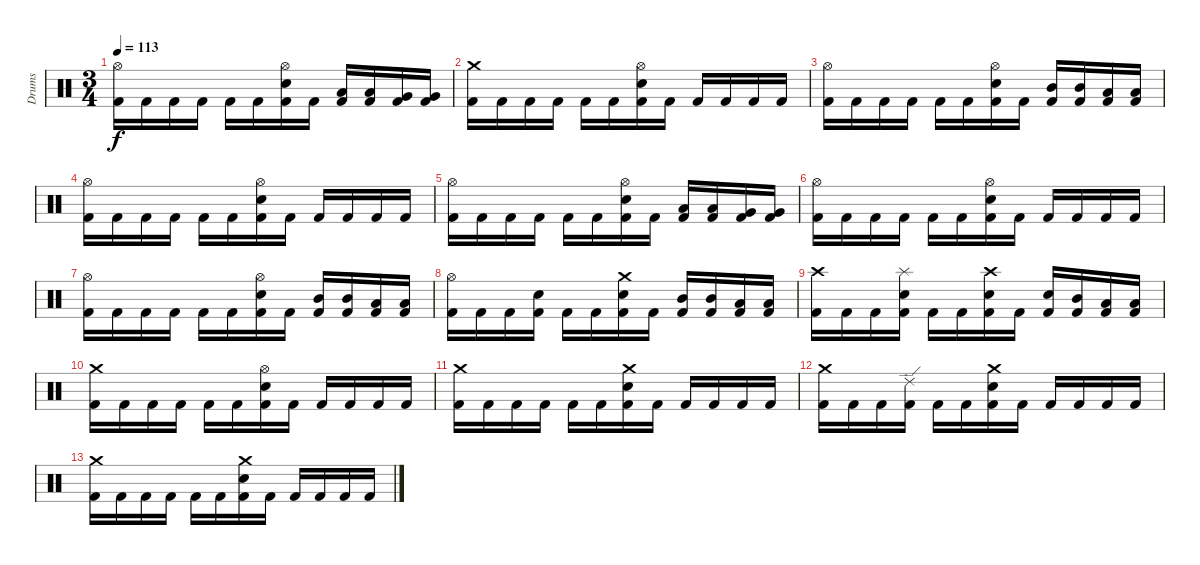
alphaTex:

\track ("Drums" "Drums") {instrument percussion}
\staff {score}
\articulation defaults
\ts (3 4)
\tempo 113
\clef neutral
\ks c
("Hi-Hat (open)" "Kick (hit) 2").16{dy f} "Kick (hit) 2".16 "Kick (hit) 2".16 "Kick (hit) 2".16 "Kick (hit) 2".16 "Kick (hit) 2".16 ("Hi-Hat (open)" "Electric Snare (hit)" "Kick (hit) 2").16 "Kick (hit) 2".16 ("Low Tom (hit)" "Kick (hit) 2").16 ("Low Tom (hit)" "Kick (hit) 2").16 ("Very Low Tom (hit)" "Kick (hit) 2").16 ("Very Low Tom (hit)" "Kick (hit) 2").16 |
("Crash medium (hit)" "Kick (hit) 2").16 "Kick (hit) 2".16 "Kick (hit) 2".16 "Kick (hit) 2".16 "Kick (hit) 2".16 "Kick (hit) 2".16 ("Hi-Hat (open)" "Electric Snare (hit)" "Kick (hit) 2").16 "Kick (hit) 2".16 "Kick (hit) 2".16 "Kick (hit) 2".16 "Kick (hit) 2".16 "Kick (hit) 2".16 |
("Hi-Hat (open)" "Kick (hit) 2").16 "Kick (hit) 2".16 "Kick (hit) 2".16 "Kick (hit) 2".16 "Kick (hit) 2".16 "Kick (hit) 2".16 ("Hi-Hat (open)" "Electric Snare (hit)" "Kick (hit) 2").16 "Kick (hit) 2".16 ("Mid Tom (hit)" "Kick (hit) 2").16 ("Mid Tom (hit)" "Kick (hit) 2").16 ("Low Tom (hit)" "Kick (hit) 2").16 ("Low Tom (hit)" "Kick (hit) 2").16 |
("Hi-Hat (open)" "Kick (hit) 2").16 "Kick (hit) 2".16 "Kick (hit) 2".16 "Kick (hit) 2".16 "Kick (hit) 2".16 "Kick (hit) 2".16 ("Hi-Hat (open)" "Electric Snare (hit)" "Kick (hit) 2").16 "Kick (hit) 2".16 "Kick (hit) 2".16 "Kick (hit) 2".16 "Kick (hit) 2".16 "Kick (hit) 2".16 |
("Hi-Hat (open)" "Kick (hit) 2").16 "Kick (hit) 2".16 "Kick (hit) 2".16 "Kick (hit) 2".16 "Kick (hit) 2".16 "Kick (hit) 2".16 ("Hi-Hat (open)" "Electric Snare (hit)" "Kick (hit) 2").16 "Kick (hit) 2".16 ("Low Tom (hit)" "Kick (hit) 2").16 ("Low Tom (hit)" "Kick (hit) 2").16 ("Very Low Tom (hit)" "Kick (hit) 2").16 ("Very Low Tom (hit)" "Kick (hit) 2").16 |
("Hi-Hat (open)" "Kick (hit) 2").16 "Kick (hit) 2".16 "Kick (hit) 2".16 "Kick (hit) 2".16 "Kick (hit) 2".16 "Kick (hit) 2".16 ("Hi-Hat (open)" "Electric Snare (hit)" "Kick (hit) 2").16 "Kick (hit) 2".16 "Kick (hit) 2".16 "Kick (hit) 2".16 "Kick (hit) 2".16 "Kick (hit) 2".16 |
("Hi-Hat (open)" "Kick (hit) 2").16 "Kick (hit) 2".16 "Kick (hit) 2".16 "Kick (hit) 2".16 "Kick (hit) 2".16 "Kick (hit) 2".16 ("Hi-Hat (open)" "Electric Snare (hit)" "Kick (hit) 2").16 "Kick (hit) 2".16 ("Mid Tom (hit)" "Kick (hit) 2").16 ("Mid Tom (hit)" "Kick (hit) 2").16 ("Low Tom (hit)" "Kick (hit) 2").16 ("Low Tom (hit)" "Kick (hit) 2").16 |
("Hi-Hat (open)" "Kick (hit) 2").16 "Kick (hit) 2".16 "Kick (hit) 2".16 ("Electric Snare (hit)" "Kick (hit) 2").16 "Kick (hit) 2".16 "Kick (hit) 2".16 ("Crash medium (hit)" "Electric Snare (hit)" "Kick (hit) 2").16 "Kick (hit) 2".16 ("Mid Tom (hit)" "Kick (hit) 2").16 ("Mid Tom (hit)" "Kick (hit) 2").16 ("Low Tom (hit)" "Kick (hit) 2").16 ("Low Tom (hit)" "Kick (hit) 2").16 |
("Crash high (hit)" "Kick (hit) 2").16 "Kick (hit) 2".16 "Kick (hit) 2".16 ("Splash (hit)" "Electric Snare (hit)" "Kick (hit) 2").16 "Kick (hit) 2".16 "Kick (hit) 2".16 ("Crash high (hit)" "Electric Snare (hit)" "Kick (hit) 2").16 "Kick (hit) 2".16 ("Electric Snare (hit)" "Kick (hit) 2").16 ("Mid Tom (hit)" "Kick (hit) 2").16 ("Low Tom (hit)" "Kick (hit) 2").16 ("Low Floor Tom (hit)" "Kick (hit) 2").16 |
("Crash medium (hit)" "Kick (hit) 2").16 "Kick (hit) 2".16 "Kick (hit) 2".16 "Kick (hit) 2".16 "Kick (hit) 2".16 "Kick (hit) 2".16 ("Hi-Hat (open)" "Electric Snare (hit)" "Kick (hit) 2").16 "Kick (hit) 2".16 "Kick (hit) 2".16 "Kick (hit) 2".16 "Kick (hit) 2".16 "Kick (hit) 2".16 |
("Crash medium (hit)" "Kick (hit) 2").16 "Kick (hit) 2".16 "Kick (hit) 2".16 "Kick (hit) 2".16 "Kick (hit) 2".16 "Kick (hit) 2".16 ("Crash medium (hit)" "Electric Snare (hit)" "Kick (hit) 2").16 "Kick (hit) 2".16 "Kick (hit) 2".16 "Kick (hit) 2".16 "Kick (hit) 2".16 "Kick (hit) 2".16 |
("Crash medium (hit)" "Kick (hit) 2").16 "Kick (hit) 2".16 "Kick (hit) 2".16 ("Ride (edge) 2" "Kick (hit) 2").16 "Kick (hit) 2".16 "Kick (hit) 2".16 ("Crash medium (hit)" "Electric Snare (hit)" "Kick (hit) 2").16 "Kick (hit) 2".16 "Kick (hit) 2".16 "Kick (hit) 2".16 "Kick (hit) 2".16 "Kick (hit) 2".16 |
("Crash medium (hit)" "Kick (hit) 2").16 "Kick (hit) 2".16 "Kick (hit) 2".16 "Kick (hit) 2".16 "Kick (hit) 2".16 "Kick (hit) 2".16 ("Crash medium (hit)" "Electric Snare (hit)" "Kick (hit) 2").16 "Kick (hit) 2".16 "Kick (hit) 2".16 "Kick (hit) 2".16 "Kick (hit) 2".16 "Kick (hit) 2".16
